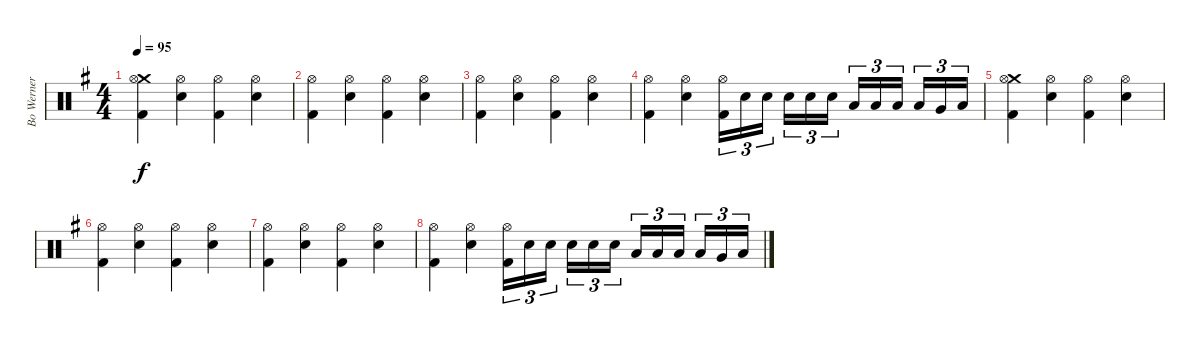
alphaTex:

\track ("Bo Werner" "Bo Werner") {instrument percussion}
\staff {score}
\articulation defaults
\ts (4 4)
\tempo 95
\clef neutral
\ks g
("Crash medium (hit)" "Hi-Hat (open)" "Kick (hit) 2").4{dy f} ("Hi-Hat (open)" "Snare (hit) 2").4 ("Hi-Hat (open)" "Kick (hit) 2").4 ("Hi-Hat (open)" "Snare (hit) 2").4 |
("Hi-Hat (open)" "Kick (hit) 2").4 ("Hi-Hat (open)" "Snare (hit) 2").4 ("Hi-Hat (open)" "Kick (hit) 2").4 ("Hi-Hat (open)" "Snare (hit) 2").4 |
("Hi-Hat (open)" "Kick (hit) 2").4 ("Hi-Hat (open)" "Snare (hit) 2").4 ("Hi-Hat (open)" "Kick (hit) 2").4 ("Hi-Hat (open)" "Snare (hit) 2").4 |
("Hi-Hat (open)" "Kick (hit) 2").4 ("Hi-Hat (open)" "Snare (hit) 2").4 ("Hi-Hat (open)" "Kick (hit) 2").16{tu (3 2)} "Snare (hit) 2".16{tu (3 2)} "Snare (hit) 2".16{tu (3 2) beam splitsecondary} "Snare (hit) 2".16{tu (3 2)} "Snare (hit) 2".16{tu (3 2)} "Snare (hit) 2".16{tu (3 2)} "Low Tom (hit)".16{tu (3 2)} "Low Tom (hit)".16{tu (3 2)} "Low Tom (hit)".16{tu (3 2) beam splitsecondary} "Low Tom (hit)".16{tu (3 2)} "Very Low Tom (hit)".16{tu (3 2)} "Low Floor Tom (hit)".16{tu (3 2)} |
("Crash medium (hit)" "Hi-Hat (open)" "Kick (hit) 2").4 ("Hi-Hat (open)" "Snare (hit) 2").4 ("Hi-Hat (open)" "Kick (hit) 2").4 ("Hi-Hat (open)" "Snare (hit) 2").4 |
("Hi-Hat (open)" "Kick (hit) 2").4 ("Hi-Hat (open)" "Snare (hit) 2").4 ("Hi-Hat (open)" "Kick (hit) 2").4 ("Hi-Hat (open)" "Snare (hit) 2").4 |
("Hi-Hat (open)" "Kick (hit) 2").4 ("Hi-Hat (open)" "Snare (hit) 2").4 ("Hi-Hat (open)" "Kick (hit) 2").4 ("Hi-Hat (open)" "Snare (hit) 2").4 |
("Hi-Hat (open)" "Kick (hit) 2").4 ("Hi-Hat (open)" "Snare (hit) 2").4 ("Hi-Hat (open)" "Kick (hit) 2").16{tu (3 2)} "Snare (hit) 2".16{tu (3 2)} "Snare (hit) 2".16{tu (3 2) beam splitsecondary} "Snare (hit) 2".16{tu (3 2)} "Snare (hit) 2".16{tu (3 2)} "Snare (hit) 2".16{tu (3 2)} "Low Tom (hit)".16{tu (3 2)} "Low Tom (hit)".16{tu (3 2)} "Low Tom (hit)".16{tu (3 2) beam splitsecondary} "Low Tom (hit)".16{tu (3 2)} "Very Low Tom (hit)".16{tu (3 2)} "Low Floor Tom (hit)".16{tu (3 2)}
